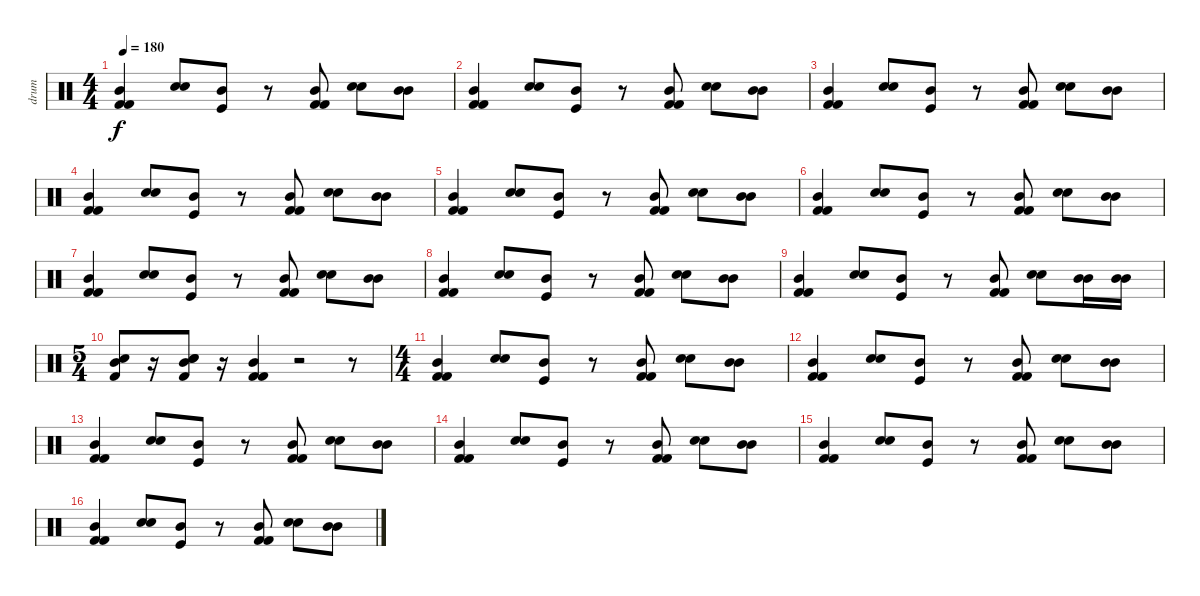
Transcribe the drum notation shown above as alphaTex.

\track ("drum" "drum") {instrument percussion}
\staff {score}
\articulation defaults
\ts (4 4)
\tempo 180
\clef neutral
\ks c
("Kick (hit) 2" "Mid Tom (hit)" "Kick (hit) 2").4{dy f} ("Electric Snare (hit)" "Electric Snare (hit)").8 ("Kick (hit)" "Mid Tom (hit)").8 r.8 ("Mid Tom (hit)" "Kick (hit) 2" "Kick (hit) 2").8 ("Electric Snare (hit)" "Electric Snare (hit)").8 ("Mid Tom (hit)" "Mid Tom (hit)").8 |
("Kick (hit) 2" "Mid Tom (hit)" "Kick (hit) 2").4 ("Electric Snare (hit)" "Electric Snare (hit)").8 ("Kick (hit)" "Mid Tom (hit)").8 r.8 ("Mid Tom (hit)" "Kick (hit) 2" "Kick (hit) 2").8 ("Electric Snare (hit)" "Electric Snare (hit)").8 ("Mid Tom (hit)" "Mid Tom (hit)").8 |
("Kick (hit) 2" "Mid Tom (hit)" "Kick (hit) 2").4 ("Electric Snare (hit)" "Electric Snare (hit)").8 ("Kick (hit)" "Mid Tom (hit)").8 r.8 ("Mid Tom (hit)" "Kick (hit) 2" "Kick (hit) 2").8 ("Electric Snare (hit)" "Electric Snare (hit)").8 ("Mid Tom (hit)" "Mid Tom (hit)").8 |
("Kick (hit) 2" "Mid Tom (hit)" "Kick (hit) 2").4 ("Electric Snare (hit)" "Electric Snare (hit)").8 ("Kick (hit)" "Mid Tom (hit)").8 r.8 ("Mid Tom (hit)" "Kick (hit) 2" "Kick (hit) 2").8 ("Electric Snare (hit)" "Electric Snare (hit)").8 ("Mid Tom (hit)" "Mid Tom (hit)").8 |
("Kick (hit) 2" "Mid Tom (hit)" "Kick (hit) 2").4 ("Electric Snare (hit)" "Electric Snare (hit)").8 ("Kick (hit)" "Mid Tom (hit)").8 r.8 ("Mid Tom (hit)" "Kick (hit) 2" "Kick (hit) 2").8 ("Electric Snare (hit)" "Electric Snare (hit)").8 ("Mid Tom (hit)" "Mid Tom (hit)").8 |
("Kick (hit) 2" "Mid Tom (hit)" "Kick (hit) 2").4 ("Electric Snare (hit)" "Electric Snare (hit)").8 ("Kick (hit)" "Mid Tom (hit)").8 r.8 ("Mid Tom (hit)" "Kick (hit) 2" "Kick (hit) 2").8 ("Electric Snare (hit)" "Electric Snare (hit)").8 ("Mid Tom (hit)" "Mid Tom (hit)").8 |
("Kick (hit) 2" "Mid Tom (hit)" "Kick (hit) 2").4 ("Electric Snare (hit)" "Electric Snare (hit)").8 ("Kick (hit)" "Mid Tom (hit)").8 r.8 ("Mid Tom (hit)" "Kick (hit) 2" "Kick (hit) 2").8 ("Electric Snare (hit)" "Electric Snare (hit)").8 ("Mid Tom (hit)" "Mid Tom (hit)").8 |
("Kick (hit) 2" "Mid Tom (hit)" "Kick (hit) 2").4 ("Electric Snare (hit)" "Electric Snare (hit)").8 ("Kick (hit)" "Mid Tom (hit)").8 r.8 ("Mid Tom (hit)" "Kick (hit) 2" "Kick (hit) 2").8 ("Electric Snare (hit)" "Electric Snare (hit)").8 ("Mid Tom (hit)" "Mid Tom (hit)").8 |
("Kick (hit) 2" "Mid Tom (hit)" "Kick (hit) 2").4 ("Electric Snare (hit)" "Electric Snare (hit)").8 ("Kick (hit)" "Mid Tom (hit)").8 r.8 ("Mid Tom (hit)" "Kick (hit) 2" "Kick (hit) 2").8 ("Electric Snare (hit)" "Electric Snare (hit)").8 ("Mid Tom (hit)" "Mid Tom (hit)").16 ("Mid Tom (hit)" "Mid Tom (hit)").16 |
\ts (5 4)
("Kick (hit) 2" "Mid Tom (hit)" "Electric Snare (hit)").8 r.16 ("Electric Snare (hit)" "Electric Snare (hit)" "Mid Tom (hit)" "Kick (hit) 2").8 r.16 ("Mid Tom (hit)" "Kick (hit) 2" "Kick (hit) 2").4 r.2 r.8 |
\ts (4 4)
("Kick (hit) 2" "Mid Tom (hit)" "Kick (hit) 2").4 ("Electric Snare (hit)" "Electric Snare (hit)").8 ("Kick (hit)" "Mid Tom (hit)").8 r.8 ("Mid Tom (hit)" "Kick (hit) 2" "Kick (hit) 2").8 ("Electric Snare (hit)" "Electric Snare (hit)").8 ("Mid Tom (hit)" "Mid Tom (hit)").8 |
("Kick (hit) 2" "Mid Tom (hit)" "Kick (hit) 2").4 ("Electric Snare (hit)" "Electric Snare (hit)").8 ("Kick (hit)" "Mid Tom (hit)").8 r.8 ("Mid Tom (hit)" "Kick (hit) 2" "Kick (hit) 2").8 ("Electric Snare (hit)" "Electric Snare (hit)").8 ("Mid Tom (hit)" "Mid Tom (hit)").8 |
("Kick (hit) 2" "Mid Tom (hit)" "Kick (hit) 2").4 ("Electric Snare (hit)" "Electric Snare (hit)").8 ("Kick (hit)" "Mid Tom (hit)").8 r.8 ("Mid Tom (hit)" "Kick (hit) 2" "Kick (hit) 2").8 ("Electric Snare (hit)" "Electric Snare (hit)").8 ("Mid Tom (hit)" "Mid Tom (hit)").8 |
("Kick (hit) 2" "Mid Tom (hit)" "Kick (hit) 2").4 ("Electric Snare (hit)" "Electric Snare (hit)").8 ("Kick (hit)" "Mid Tom (hit)").8 r.8 ("Mid Tom (hit)" "Kick (hit) 2" "Kick (hit) 2").8 ("Electric Snare (hit)" "Electric Snare (hit)").8 ("Mid Tom (hit)" "Mid Tom (hit)").8 |
("Kick (hit) 2" "Mid Tom (hit)" "Kick (hit) 2").4 ("Electric Snare (hit)" "Electric Snare (hit)").8 ("Kick (hit)" "Mid Tom (hit)").8 r.8 ("Mid Tom (hit)" "Kick (hit) 2" "Kick (hit) 2").8 ("Electric Snare (hit)" "Electric Snare (hit)").8 ("Mid Tom (hit)" "Mid Tom (hit)").8 |
("Kick (hit) 2" "Mid Tom (hit)" "Kick (hit) 2").4 ("Electric Snare (hit)" "Electric Snare (hit)").8 ("Kick (hit)" "Mid Tom (hit)").8 r.8 ("Mid Tom (hit)" "Kick (hit) 2" "Kick (hit) 2").8 ("Electric Snare (hit)" "Electric Snare (hit)").8 ("Mid Tom (hit)" "Mid Tom (hit)").8
